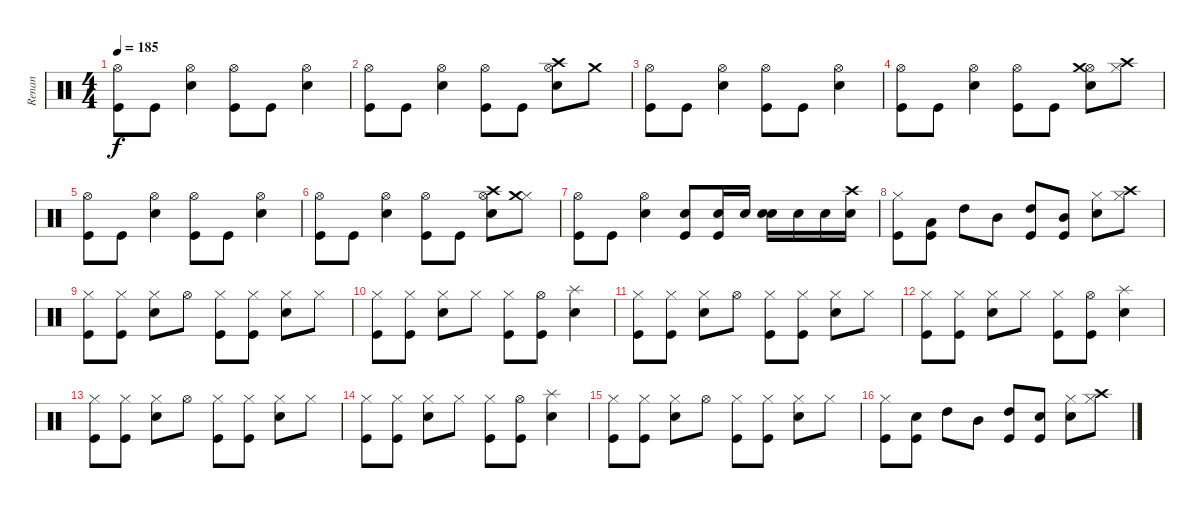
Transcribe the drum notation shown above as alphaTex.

\track ("Renan" "Renan") {instrument percussion}
\staff {score}
\articulation defaults
\ts (4 4)
\tempo 185
\clef neutral
\ks c
("Hi-Hat (open)" "Kick (hit)").8{dy f} "Kick (hit)".8 ("Hi-Hat (open)" "Snare (hit) 2").4 ("Hi-Hat (open)" "Kick (hit)").8 "Kick (hit)".8 ("Hi-Hat (open)" "Snare (hit) 2").4 |
("Hi-Hat (open)" "Kick (hit)").8 "Kick (hit)".8 ("Hi-Hat (open)" "Snare (hit) 2").4 ("Hi-Hat (open)" "Kick (hit)").8 "Kick (hit)".8 ("Hi-Hat (open)" "Crash high (hit)" "Snare (hit) 2").8 "Crash medium (hit)".8 |
("Hi-Hat (open)" "Kick (hit)").8 "Kick (hit)".8 ("Hi-Hat (open)" "Snare (hit) 2").4 ("Hi-Hat (open)" "Kick (hit)").8 "Kick (hit)".8 ("Hi-Hat (open)" "Snare (hit) 2").4 |
("Hi-Hat (open)" "Kick (hit)").8 "Kick (hit)".8 ("Hi-Hat (open)" "Snare (hit) 2").4 ("Hi-Hat (open)" "Kick (hit)").8 "Kick (hit)".8 ("Hi-Hat (open)" "Crash medium (hit)" "Snare (hit) 2").8 ("Hi-Hat (closed)" "Crash high (hit)").8 |
("Hi-Hat (open)" "Kick (hit)").8 "Kick (hit)".8 ("Hi-Hat (open)" "Snare (hit) 2").4 ("Hi-Hat (open)" "Kick (hit)").8 "Kick (hit)".8 ("Hi-Hat (open)" "Snare (hit) 2").4 |
("Hi-Hat (open)" "Kick (hit)").8 "Kick (hit)".8 ("Hi-Hat (open)" "Snare (hit) 2").4 ("Hi-Hat (open)" "Kick (hit)").8 "Kick (hit)".8 ("Hi-Hat (open)" "Crash high (hit)" "Snare (hit) 2").8 ("Hi-Hat (closed)" "Crash medium (hit)").8 |
("Hi-Hat (open)" "Kick (hit)").8 "Kick (hit)".8 ("Hi-Hat (open)" "Snare (hit) 2").4 ("Electric Snare (hit)" "Kick (hit)").8 ("Electric Snare (hit)" "Kick (hit)").16 "Electric Snare (hit)".16 ("Electric Snare (hit)" "Snare (hit) 2").16 "Electric Snare (hit)".16 "Electric Snare (hit)".16 ("Crash high (hit)" "Electric Snare (hit)").16 |
("Hi-Hat (closed)" "Kick (hit)").8 ("Low Floor Tom (hit)" "Kick (hit)").8 "High Tom (hit)".8 "Mid Tom (hit)".8 ("High Tom (hit)" "Kick (hit)").8 ("Mid Tom (hit)" "Kick (hit)").8 ("Hi-Hat (closed)" "Snare (hit) 2").8 ("Hi-Hat (closed)" "Crash high (hit)").8 |
("Hi-Hat (closed)" "Kick (hit)").8 ("Hi-Hat (closed)" "Kick (hit)").8 ("Hi-Hat (closed)" "Snare (hit) 2").8 "Hi-Hat (open)".8 ("Hi-Hat (closed)" "Kick (hit)").8 ("Hi-Hat (closed)" "Kick (hit)").8 ("Hi-Hat (closed)" "Snare (hit) 2").8 "Hi-Hat (closed)".8 |
("Hi-Hat (closed)" "Kick (hit)").8 ("Hi-Hat (closed)" "Kick (hit)").8 ("Hi-Hat (closed)" "Snare (hit) 2").8 "Hi-Hat (closed)".8 ("Hi-Hat (closed)" "Kick (hit)").8 ("Hi-Hat (open)" "Kick (hit)").8 ("Splash (hit)" "Snare (hit) 2").4 |
("Hi-Hat (closed)" "Kick (hit)").8 ("Hi-Hat (closed)" "Kick (hit)").8 ("Hi-Hat (closed)" "Snare (hit) 2").8 "Hi-Hat (open)".8 ("Hi-Hat (closed)" "Kick (hit)").8 ("Hi-Hat (closed)" "Kick (hit)").8 ("Hi-Hat (closed)" "Snare (hit) 2").8 "Hi-Hat (closed)".8 |
("Hi-Hat (closed)" "Kick (hit)").8 ("Hi-Hat (closed)" "Kick (hit)").8 ("Hi-Hat (closed)" "Snare (hit) 2").8 "Hi-Hat (closed)".8 ("Hi-Hat (closed)" "Kick (hit)").8 ("Hi-Hat (open)" "Kick (hit)").8 ("Splash (hit)" "Snare (hit) 2").4 |
("Hi-Hat (closed)" "Kick (hit)").8 ("Hi-Hat (closed)" "Kick (hit)").8 ("Hi-Hat (closed)" "Snare (hit) 2").8 "Hi-Hat (open)".8 ("Hi-Hat (closed)" "Kick (hit)").8 ("Hi-Hat (closed)" "Kick (hit)").8 ("Hi-Hat (closed)" "Snare (hit) 2").8 "Hi-Hat (closed)".8 |
("Hi-Hat (closed)" "Kick (hit)").8 ("Hi-Hat (closed)" "Kick (hit)").8 ("Hi-Hat (closed)" "Snare (hit) 2").8 "Hi-Hat (closed)".8 ("Hi-Hat (closed)" "Kick (hit)").8 ("Hi-Hat (open)" "Kick (hit)").8 ("Splash (hit)" "Snare (hit) 2").4 |
("Hi-Hat (closed)" "Kick (hit)").8 ("Hi-Hat (closed)" "Kick (hit)").8 ("Hi-Hat (closed)" "Snare (hit) 2").8 "Hi-Hat (open)".8 ("Hi-Hat (closed)" "Kick (hit)").8 ("Hi-Hat (closed)" "Kick (hit)").8 ("Hi-Hat (closed)" "Snare (hit) 2").8 "Hi-Hat (closed)".8 |
("Hi-Hat (closed)" "Kick (hit)").8 ("Electric Snare (hit)" "Kick (hit)").8 "High Tom (hit)".8 "Mid Tom (hit)".8 ("High Tom (hit)" "Kick (hit)").8 ("Electric Snare (hit)" "Kick (hit)").8 ("Hi-Hat (closed)" "Snare (hit) 2").8 ("Hi-Hat (closed)" "Crash high (hit)").8
